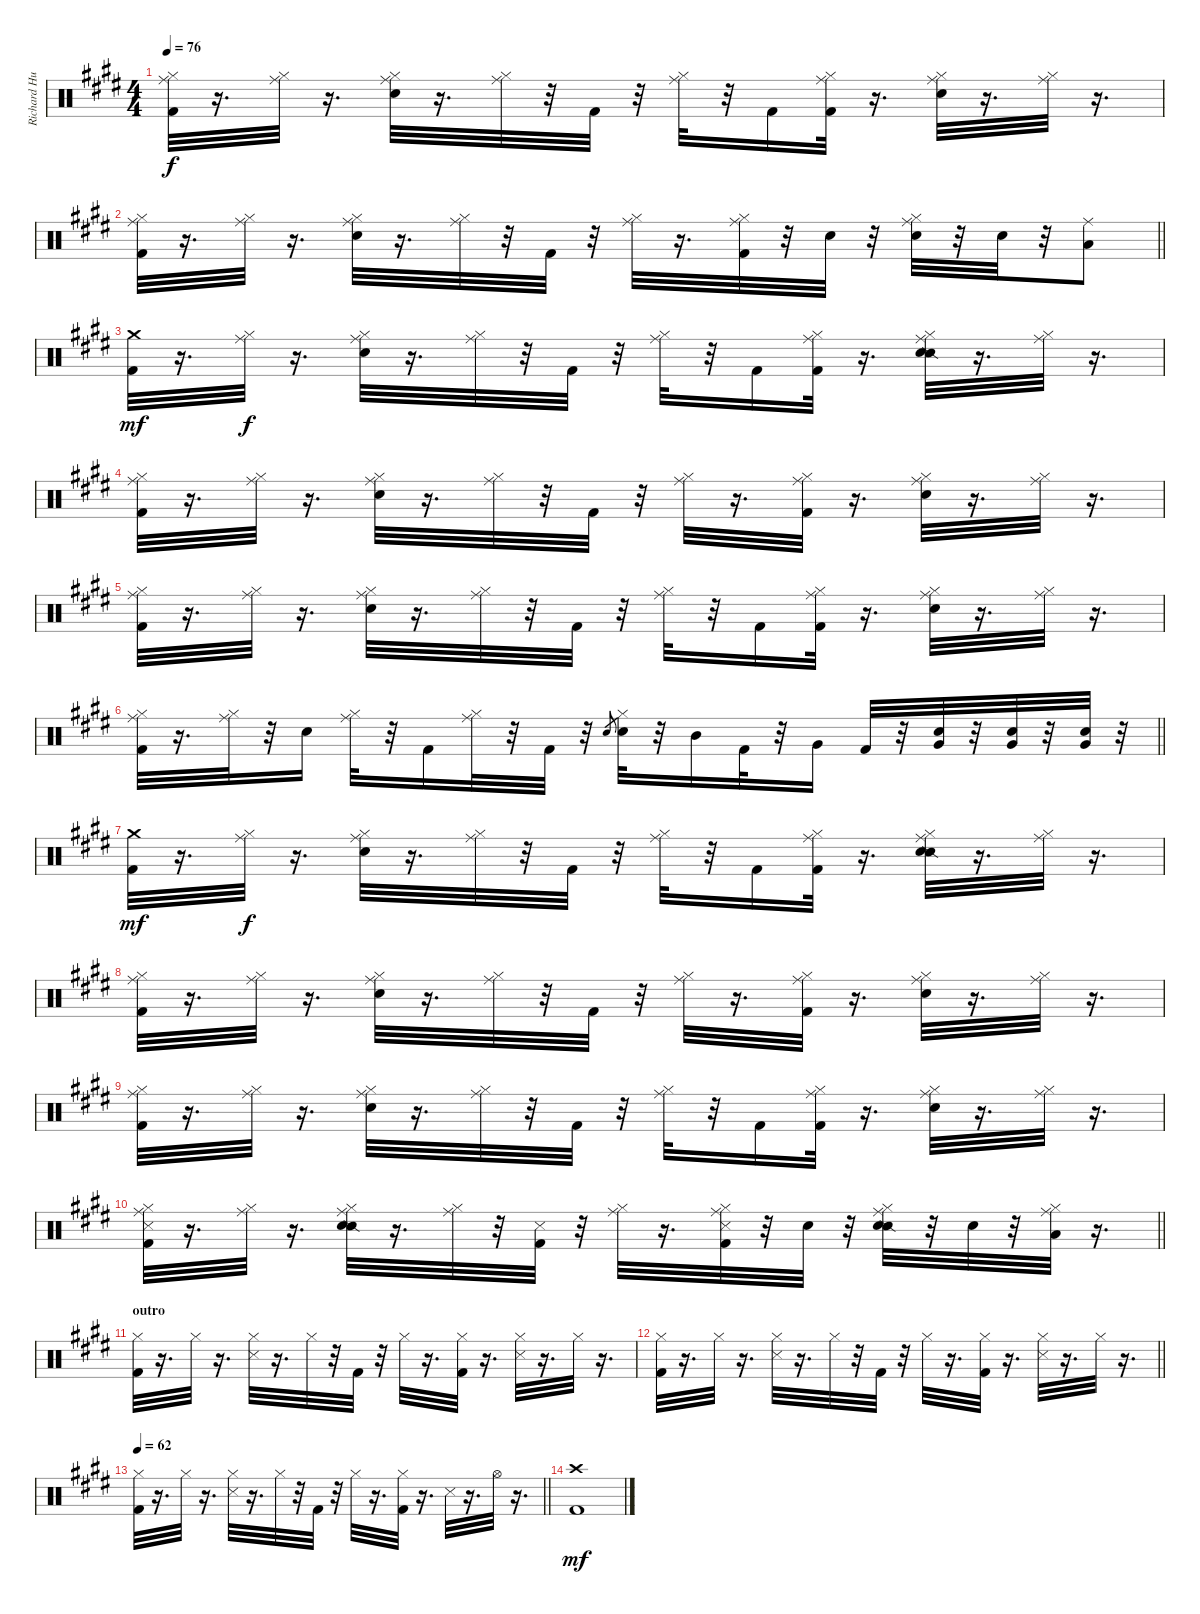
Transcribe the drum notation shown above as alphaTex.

\track ("Richard Hughes" "Richard Hu") {instrument percussion}
\staff {score}
\articulation defaults
\ts (4 4)
\tempo 76
\clef neutral
\ks e
("Kick (hit) 2" "Hi-Hat (closed)" "Ride (middle)").32{dy f} r.16{d} ("Hi-Hat (closed)" "Ride (middle)").32 r.16{d} ("Ride (middle)" "Hi-Hat (closed)" "Electric Snare (hit)").32 r.16{d} ("Ride (middle)" "Hi-Hat (closed)").32 r.32 "Kick (hit) 2".32 r.32 ("Ride (middle)" "Hi-Hat (closed)").32 r.32 "Kick (hit) 2".16 ("Kick (hit) 2" "Hi-Hat (closed)" "Ride (middle)").32 r.16{d} ("Hi-Hat (closed)" "Ride (middle)" "Electric Snare (hit)").32 r.16{d} ("Hi-Hat (closed)" "Ride (middle)").32 r.16{d} |
\barLineRight lightlight
("Kick (hit) 2" "Hi-Hat (closed)" "Ride (middle)").32 r.16{d} ("Hi-Hat (closed)" "Ride (middle)").32 r.16{d} ("Hi-Hat (closed)" "Ride (middle)" "Electric Snare (hit)").32 r.16{d} ("Hi-Hat (closed)" "Ride (middle)").32 r.32 "Kick (hit) 2".32 r.32 ("Hi-Hat (closed)" "Ride (middle)").32 r.16{d} ("Kick (hit) 2" "Ride (middle)" "Hi-Hat (closed)").32 r.32 "Electric Snare (hit)".32 r.32 ("Ride (middle)" "Hi-Hat (closed)" "Electric Snare (hit)").32 r.32 "Electric Snare (hit)".32 r.32 ("Low Tom (hit)" "Ride (middle)").8 |
("Kick (hit) 2" "Crash medium (hit)").32{dy mf} r.16{d} ("Ride (middle)" "Hi-Hat (closed)").32{dy f} r.16{d} ("Hi-Hat (closed)" "Ride (middle)" "Electric Snare (hit)").32 r.16{d} ("Ride (middle)" "Hi-Hat (closed)").32 r.32 "Kick (hit) 2".32 r.32 ("Ride (middle)" "Hi-Hat (closed)").32 r.32 "Kick (hit) 2".16 ("Kick (hit) 2" "Hi-Hat (closed)" "Ride (middle)").32 r.16{d} ("Hi-Hat (closed)" "Ride (middle)" "Snare (side stick) 2" "Electric Snare (hit)").32 r.16{d} ("Hi-Hat (closed)" "Ride (middle)").32 r.16{d} |
("Kick (hit) 2" "Ride (middle)" "Hi-Hat (closed)").32 r.16{d} ("Ride (middle)" "Hi-Hat (closed)").32 r.16{d} ("Ride (middle)" "Hi-Hat (closed)" "Electric Snare (hit)").32 r.16{d} ("Hi-Hat (closed)" "Ride (middle)").32 r.32 "Kick (hit) 2".32 r.32 ("Ride (middle)" "Hi-Hat (closed)").32 r.16{d} ("Kick (hit) 2" "Ride (middle)" "Hi-Hat (closed)").32 r.16{d} ("Ride (middle)" "Hi-Hat (closed)" "Electric Snare (hit)").32 r.16{d} ("Ride (middle)" "Hi-Hat (closed)").32 r.16{d} |
("Kick (hit) 2" "Hi-Hat (closed)" "Ride (middle)").32 r.16{d} ("Hi-Hat (closed)" "Ride (middle)").32 r.16{d} ("Ride (middle)" "Hi-Hat (closed)" "Electric Snare (hit)").32 r.16{d} ("Ride (middle)" "Hi-Hat (closed)").32 r.32 "Kick (hit) 2".32 r.32 ("Ride (middle)" "Hi-Hat (closed)").32 r.32 "Kick (hit) 2".16 ("Kick (hit) 2" "Hi-Hat (closed)" "Ride (middle)").32 r.16{d} ("Hi-Hat (closed)" "Ride (middle)" "Electric Snare (hit)").32 r.16{d} ("Hi-Hat (closed)" "Ride (middle)").32 r.16{d} |
\barLineRight lightlight
("Kick (hit) 2" "Ride (middle)" "Hi-Hat (closed)").32 r.16{d} ("Ride (middle)" "Hi-Hat (closed)").32 r.32 "Electric Snare (hit)".16 ("Ride (middle)" "Hi-Hat (closed)").32 r.32 "Kick (hit) 2".16 ("Hi-Hat (closed)" "Ride (middle)").32 r.32 "Kick (hit) 2".32 r.32 "Electric Snare (hit)"{x}.8{gr} ("Hi-Hat (closed)" "Electric Snare (hit)").32 r.32 "Mid Tom (hit)".16 "Kick (hit) 2".32 r.32 "Very Low Tom (hit)".16 "Kick (hit) 2".32 r.32 ("Electric Snare (hit)" "Very Low Tom (hit)").32 r.32 ("Electric Snare (hit)" "Very Low Tom (hit)").32 r.32 ("Electric Snare (hit)" "Very Low Tom (hit)").32 r.32 |
("Kick (hit) 2" "Crash medium (hit)").32{dy mf} r.16{d} ("Ride (middle)" "Hi-Hat (closed)").32{dy f} r.16{d} ("Hi-Hat (closed)" "Ride (middle)" "Electric Snare (hit)").32 r.16{d} ("Ride (middle)" "Hi-Hat (closed)").32 r.32 "Kick (hit) 2".32 r.32 ("Ride (middle)" "Hi-Hat (closed)").32 r.32 "Kick (hit) 2".16 ("Kick (hit) 2" "Hi-Hat (closed)" "Ride (middle)").32 r.16{d} ("Hi-Hat (closed)" "Ride (middle)" "Snare (side stick) 2" "Electric Snare (hit)").32 r.16{d} ("Hi-Hat (closed)" "Ride (middle)").32 r.16{d} |
("Kick (hit) 2" "Ride (middle)" "Hi-Hat (closed)").32 r.16{d} ("Ride (middle)" "Hi-Hat (closed)").32 r.16{d} ("Ride (middle)" "Hi-Hat (closed)" "Electric Snare (hit)").32 r.16{d} ("Hi-Hat (closed)" "Ride (middle)").32 r.32 "Kick (hit) 2".32 r.32 ("Ride (middle)" "Hi-Hat (closed)").32 r.16{d} ("Kick (hit) 2" "Ride (middle)" "Hi-Hat (closed)").32 r.16{d} ("Ride (middle)" "Hi-Hat (closed)" "Electric Snare (hit)").32 r.16{d} ("Ride (middle)" "Hi-Hat (closed)").32 r.16{d} |
("Kick (hit) 2" "Hi-Hat (closed)" "Ride (middle)").32 r.16{d} ("Hi-Hat (closed)" "Ride (middle)").32 r.16{d} ("Ride (middle)" "Hi-Hat (closed)" "Electric Snare (hit)").32 r.16{d} ("Ride (middle)" "Hi-Hat (closed)").32 r.32 "Kick (hit) 2".32 r.32 ("Ride (middle)" "Hi-Hat (closed)").32 r.32 "Kick (hit) 2".16 ("Kick (hit) 2" "Hi-Hat (closed)" "Ride (middle)").32 r.16{d} ("Hi-Hat (closed)" "Ride (middle)" "Electric Snare (hit)").32 r.16{d} ("Hi-Hat (closed)" "Ride (middle)").32 r.16{d} |
\barLineRight lightlight
("Kick (hit) 2" "Metronome (hit)" "Hi-Hat (closed)" "Ride (middle)").32 r.16{d} ("Hi-Hat (closed)" "Ride (middle)").32 r.16{d} ("Snare (side stick) 2" "Hi-Hat (closed)" "Ride (middle)" "Electric Snare (hit)").32 r.16{d} ("Hi-Hat (closed)" "Ride (middle)").32 r.32 ("Kick (hit) 2" "Metronome (hit)").32 r.32 ("Hi-Hat (closed)" "Ride (middle)").32 r.16{d} ("Kick (hit) 2" "Metronome (hit)" "Ride (middle)" "Hi-Hat (closed)").32 r.32 "Electric Snare (hit)".32 r.32 ("Ride (middle)" "Snare (side stick) 2" "Hi-Hat (closed)" "Electric Snare (hit)").32 r.32 "Electric Snare (hit)".32 r.32 ("Low Tom (hit)" "Hi-Hat (closed)" "Ride (middle)").32 r.16{d} |
\section ("" "outro")
("Kick (hit) 2" "Hi-Hat (closed)").32 r.16{d} "Hi-Hat (closed)".32 r.16{d} ("Snare (side stick) 3" "Hi-Hat (closed)").32 r.16{d} "Hi-Hat (closed)".32 r.32 "Kick (hit) 2".32 r.32 "Hi-Hat (closed)".32 r.16{d} ("Kick (hit) 2" "Hi-Hat (closed)").32 r.16{d} ("Snare (side stick) 3" "Hi-Hat (closed)").32 r.16{d} "Hi-Hat (closed)".32 r.16{d} |
\barLineRight lightlight
("Kick (hit) 2" "Hi-Hat (closed)").32 r.16{d} "Hi-Hat (closed)".32 r.16{d} ("Snare (side stick) 3" "Hi-Hat (closed)").32 r.16{d} "Hi-Hat (closed)".32 r.32 "Kick (hit) 2".32 r.32 "Hi-Hat (closed)".32 r.16{d} ("Kick (hit) 2" "Hi-Hat (closed)").32 r.16{d} ("Hi-Hat (closed)" "Snare (side stick) 3").32 r.16{d} "Hi-Hat (closed)".32 r.16{d} |
\tempo 62
\barLineRight lightlight
("Kick (hit) 2" "Hi-Hat (closed)").32 r.16{d} "Hi-Hat (closed)".32 r.16{d} ("Snare (side stick) 3" "Hi-Hat (closed)").32 r.16{d} "Hi-Hat (closed)".32 r.32 "Kick (hit) 2".32 r.32 "Hi-Hat (closed)".32 r.16{d} ("Kick (hit) 2" "Hi-Hat (closed)").32 r.16{d} "Snare (side stick) 3".32 r.16{d} "Hi-Hat (open)".32 r.16{d} |
("Crash high (hit)" "Kick (hit) 2").1{dy mf}
